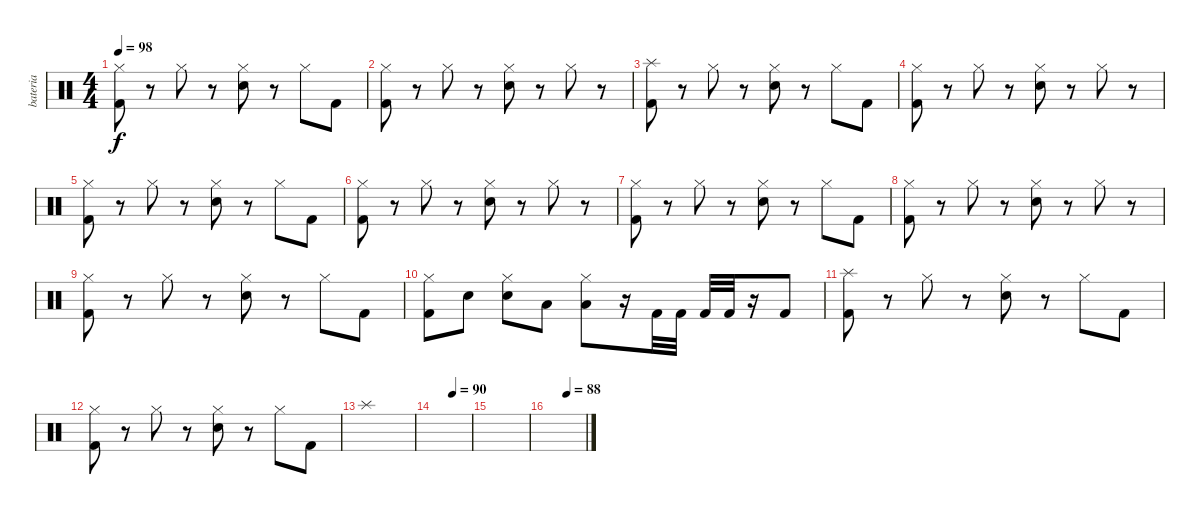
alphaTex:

\track ("bateria" "bateria") {instrument percussion}
\staff {score}
\articulation defaults
\ts (4 4)
\tempo 98
\clef neutral
\ks c
("Hi-Hat (closed)" "Kick (hit) 2").8{dy f} r.8 "Hi-Hat (closed)".8 r.8 ("Hi-Hat (closed)" "Snare (hit) 2").8 r.8 "Hi-Hat (closed)".8 "Kick (hit) 2".8 |
("Hi-Hat (closed)" "Kick (hit) 2").8 r.8 "Hi-Hat (closed)".8 r.8 ("Hi-Hat (closed)" "Snare (hit) 2").8 r.8 "Hi-Hat (closed)".8 r.8 |
("Splash (hit)" "Kick (hit) 2").8 r.8 "Hi-Hat (closed)".8 r.8 ("Hi-Hat (closed)" "Snare (hit) 2").8 r.8 "Hi-Hat (closed)".8 "Kick (hit) 2".8 |
("Hi-Hat (closed)" "Kick (hit) 2").8 r.8 "Hi-Hat (closed)".8 r.8 ("Hi-Hat (closed)" "Snare (hit) 2").8 r.8 "Hi-Hat (closed)".8 r.8 |
("Hi-Hat (closed)" "Kick (hit) 2").8 r.8 "Hi-Hat (closed)".8 r.8 ("Hi-Hat (closed)" "Snare (hit) 2").8 r.8 "Hi-Hat (closed)".8 "Kick (hit) 2".8 |
("Hi-Hat (closed)" "Kick (hit) 2").8 r.8 "Hi-Hat (closed)".8 r.8 ("Hi-Hat (closed)" "Snare (hit) 2").8 r.8 "Hi-Hat (closed)".8 r.8 |
("Hi-Hat (closed)" "Kick (hit) 2").8 r.8 "Hi-Hat (closed)".8 r.8 ("Hi-Hat (closed)" "Snare (hit) 2").8 r.8 "Hi-Hat (closed)".8 "Kick (hit) 2".8 |
("Hi-Hat (closed)" "Kick (hit) 2").8 r.8 "Hi-Hat (closed)".8 r.8 ("Hi-Hat (closed)" "Snare (hit) 2").8 r.8 "Hi-Hat (closed)".8 r.8 |
("Hi-Hat (closed)" "Kick (hit) 2").8 r.8 "Hi-Hat (closed)".8 r.8 ("Hi-Hat (closed)" "Snare (hit) 2").8 r.8 "Hi-Hat (closed)".8 "Kick (hit) 2".8 |
("Hi-Hat (closed)" "Kick (hit) 2").8 "Electric Snare (hit)".8 ("Hi-Hat (closed)" "Electric Snare (hit)").8 "Low Floor Tom (hit)".8 ("Hi-Hat (closed)" "Low Floor Tom (hit)").8 r.16 "Kick (hit) 2".32 "Kick (hit) 2".32 "Kick (hit) 2".32 "Kick (hit) 2".32 r.16 "Kick (hit) 2".8 |
("Splash (hit)" "Kick (hit) 2").8 r.8 "Hi-Hat (closed)".8 r.8 ("Hi-Hat (closed)" "Snare (hit) 2").8 r.8 "Hi-Hat (closed)".8 "Kick (hit) 2".8 |
("Hi-Hat (closed)" "Kick (hit) 2").8 r.8 "Hi-Hat (closed)".8 r.8 ("Hi-Hat (closed)" "Snare (hit) 2").8 r.8 "Hi-Hat (closed)".8 "Kick (hit) 2".8 |
"Splash (hit)".1 |
\tempo (90 0.5)
|
|
\tempo (88 0.5)
